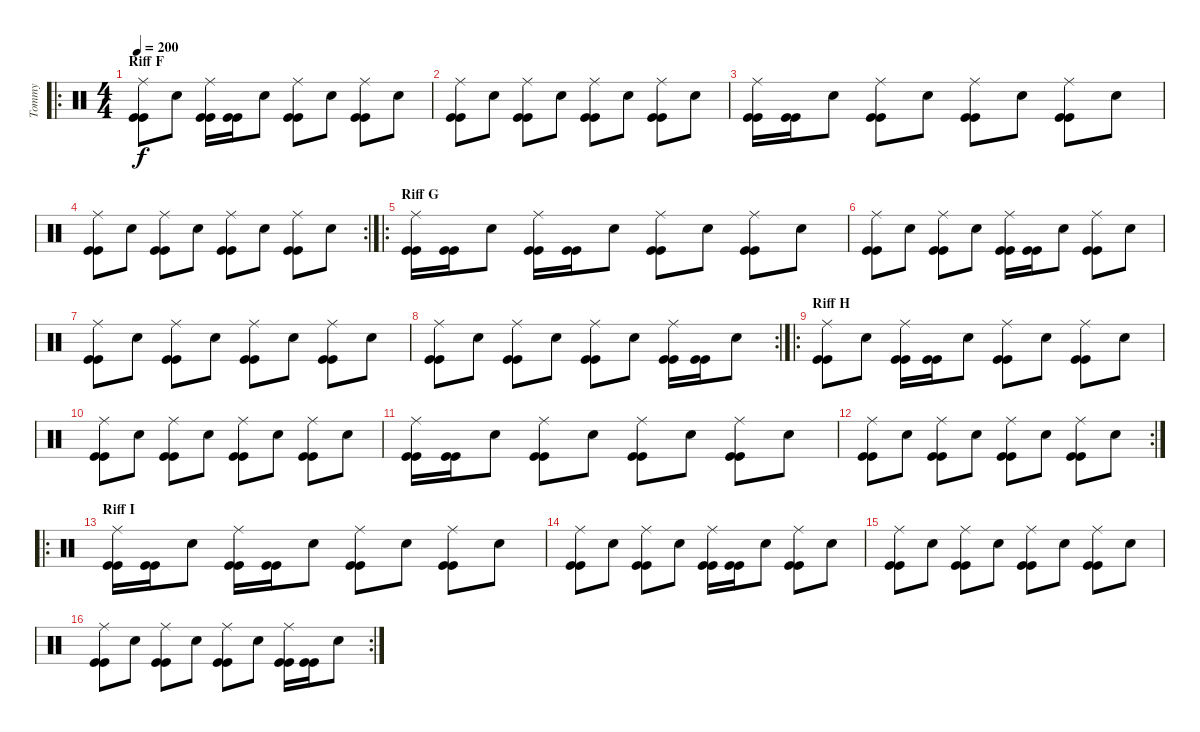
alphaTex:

\track ("Tommy" "Tommy") {instrument percussion}
\staff {score}
\articulation defaults
\ro
\ts (4 4)
\section ("" "Riff F")
\tempo 200
\clef neutral
\ks c
("Ride (middle)" "Kick (hit)" "Kick (hit)").8{dy f} "Snare (hit) 2".8 ("Ride (middle)" "Kick (hit)" "Kick (hit)").16 ("Kick (hit)" "Kick (hit)").16 "Snare (hit) 2".8 ("Ride (middle)" "Kick (hit)" "Kick (hit)").8 "Snare (hit) 2".8 ("Ride (middle)" "Kick (hit)" "Kick (hit)").8 "Snare (hit) 2".8 |
("Ride (middle)" "Kick (hit)" "Kick (hit)").8 "Snare (hit) 2".8 ("Ride (middle)" "Kick (hit)" "Kick (hit)").8 "Snare (hit) 2".8 ("Ride (middle)" "Kick (hit)" "Kick (hit)").8 "Snare (hit) 2".8 ("Ride (middle)" "Kick (hit)" "Kick (hit)").8 "Snare (hit) 2".8 |
("Ride (middle)" "Kick (hit)" "Kick (hit)").16 ("Kick (hit)" "Kick (hit)").16 "Snare (hit) 2".8 ("Ride (middle)" "Kick (hit)" "Kick (hit)").8 "Snare (hit) 2".8 ("Ride (middle)" "Kick (hit)" "Kick (hit)").8 "Snare (hit) 2".8 ("Ride (middle)" "Kick (hit)" "Kick (hit)").8 "Snare (hit) 2".8 |
\rc 2
("Ride (middle)" "Kick (hit)" "Kick (hit)").8 "Snare (hit) 2".8 ("Ride (middle)" "Kick (hit)" "Kick (hit)").8 "Snare (hit) 2".8 ("Ride (middle)" "Kick (hit)" "Kick (hit)").8 "Snare (hit) 2".8 ("Ride (middle)" "Kick (hit)" "Kick (hit)").8 "Snare (hit) 2".8 |
\ro
\section ("" "Riff G")
("Ride (middle)" "Kick (hit)" "Kick (hit)").16 ("Kick (hit)" "Kick (hit)").16 "Snare (hit) 2".8 ("Ride (middle)" "Kick (hit)" "Kick (hit)").16 ("Kick (hit)" "Kick (hit)").16 "Snare (hit) 2".8 ("Ride (middle)" "Kick (hit)" "Kick (hit)").8 "Snare (hit) 2".8 ("Ride (middle)" "Kick (hit)" "Kick (hit)").8 "Snare (hit) 2".8 |
("Ride (middle)" "Kick (hit)" "Kick (hit)").8 "Snare (hit) 2".8 ("Ride (middle)" "Kick (hit)" "Kick (hit)").8 "Snare (hit) 2".8 ("Ride (middle)" "Kick (hit)" "Kick (hit)").16 ("Kick (hit)" "Kick (hit)").16 "Snare (hit) 2".8 ("Ride (middle)" "Kick (hit)" "Kick (hit)").8 "Snare (hit) 2".8 |
("Ride (middle)" "Kick (hit)" "Kick (hit)").8 "Snare (hit) 2".8 ("Ride (middle)" "Kick (hit)" "Kick (hit)").8 "Snare (hit) 2".8 ("Ride (middle)" "Kick (hit)" "Kick (hit)").8 "Snare (hit) 2".8 ("Ride (middle)" "Kick (hit)" "Kick (hit)").8 "Snare (hit) 2".8 |
\rc 2
("Ride (middle)" "Kick (hit)" "Kick (hit)").8 "Snare (hit) 2".8 ("Ride (middle)" "Kick (hit)" "Kick (hit)").8 "Snare (hit) 2".8 ("Ride (middle)" "Kick (hit)" "Kick (hit)").8 "Snare (hit) 2".8 ("Ride (middle)" "Kick (hit)" "Kick (hit)").16 ("Kick (hit)" "Kick (hit)").16 "Snare (hit) 2".8 |
\ro
\section ("" "Riff H")
("Ride (middle)" "Kick (hit)" "Kick (hit)").8 "Snare (hit) 2".8 ("Ride (middle)" "Kick (hit)" "Kick (hit)").16 ("Kick (hit)" "Kick (hit)").16 "Snare (hit) 2".8 ("Ride (middle)" "Kick (hit)" "Kick (hit)").8 "Snare (hit) 2".8 ("Ride (middle)" "Kick (hit)" "Kick (hit)").8 "Snare (hit) 2".8 |
("Ride (middle)" "Kick (hit)" "Kick (hit)").8 "Snare (hit) 2".8 ("Ride (middle)" "Kick (hit)" "Kick (hit)").8 "Snare (hit) 2".8 ("Ride (middle)" "Kick (hit)" "Kick (hit)").8 "Snare (hit) 2".8 ("Ride (middle)" "Kick (hit)" "Kick (hit)").8 "Snare (hit) 2".8 |
("Ride (middle)" "Kick (hit)" "Kick (hit)").16 ("Kick (hit)" "Kick (hit)").16 "Snare (hit) 2".8 ("Ride (middle)" "Kick (hit)" "Kick (hit)").8 "Snare (hit) 2".8 ("Ride (middle)" "Kick (hit)" "Kick (hit)").8 "Snare (hit) 2".8 ("Ride (middle)" "Kick (hit)" "Kick (hit)").8 "Snare (hit) 2".8 |
\rc 2
("Ride (middle)" "Kick (hit)" "Kick (hit)").8 "Snare (hit) 2".8 ("Ride (middle)" "Kick (hit)" "Kick (hit)").8 "Snare (hit) 2".8 ("Ride (middle)" "Kick (hit)" "Kick (hit)").8 "Snare (hit) 2".8 ("Ride (middle)" "Kick (hit)" "Kick (hit)").8 "Snare (hit) 2".8 |
\ro
\section ("" "Riff I")
("Ride (middle)" "Kick (hit)" "Kick (hit)").16 ("Kick (hit)" "Kick (hit)").16 "Snare (hit) 2".8 ("Ride (middle)" "Kick (hit)" "Kick (hit)").16 ("Kick (hit)" "Kick (hit)").16 "Snare (hit) 2".8 ("Ride (middle)" "Kick (hit)" "Kick (hit)").8 "Snare (hit) 2".8 ("Ride (middle)" "Kick (hit)" "Kick (hit)").8 "Snare (hit) 2".8 |
("Ride (middle)" "Kick (hit)" "Kick (hit)").8 "Snare (hit) 2".8 ("Ride (middle)" "Kick (hit)" "Kick (hit)").8 "Snare (hit) 2".8 ("Ride (middle)" "Kick (hit)" "Kick (hit)").16 ("Kick (hit)" "Kick (hit)").16 "Snare (hit) 2".8 ("Ride (middle)" "Kick (hit)" "Kick (hit)").8 "Snare (hit) 2".8 |
("Ride (middle)" "Kick (hit)" "Kick (hit)").8 "Snare (hit) 2".8 ("Ride (middle)" "Kick (hit)" "Kick (hit)").8 "Snare (hit) 2".8 ("Ride (middle)" "Kick (hit)" "Kick (hit)").8 "Snare (hit) 2".8 ("Ride (middle)" "Kick (hit)" "Kick (hit)").8 "Snare (hit) 2".8 |
\rc 2
("Ride (middle)" "Kick (hit)" "Kick (hit)").8 "Snare (hit) 2".8 ("Ride (middle)" "Kick (hit)" "Kick (hit)").8 "Snare (hit) 2".8 ("Ride (middle)" "Kick (hit)" "Kick (hit)").8 "Snare (hit) 2".8 ("Ride (middle)" "Kick (hit)" "Kick (hit)").16 ("Kick (hit)" "Kick (hit)").16 "Snare (hit) 2".8
